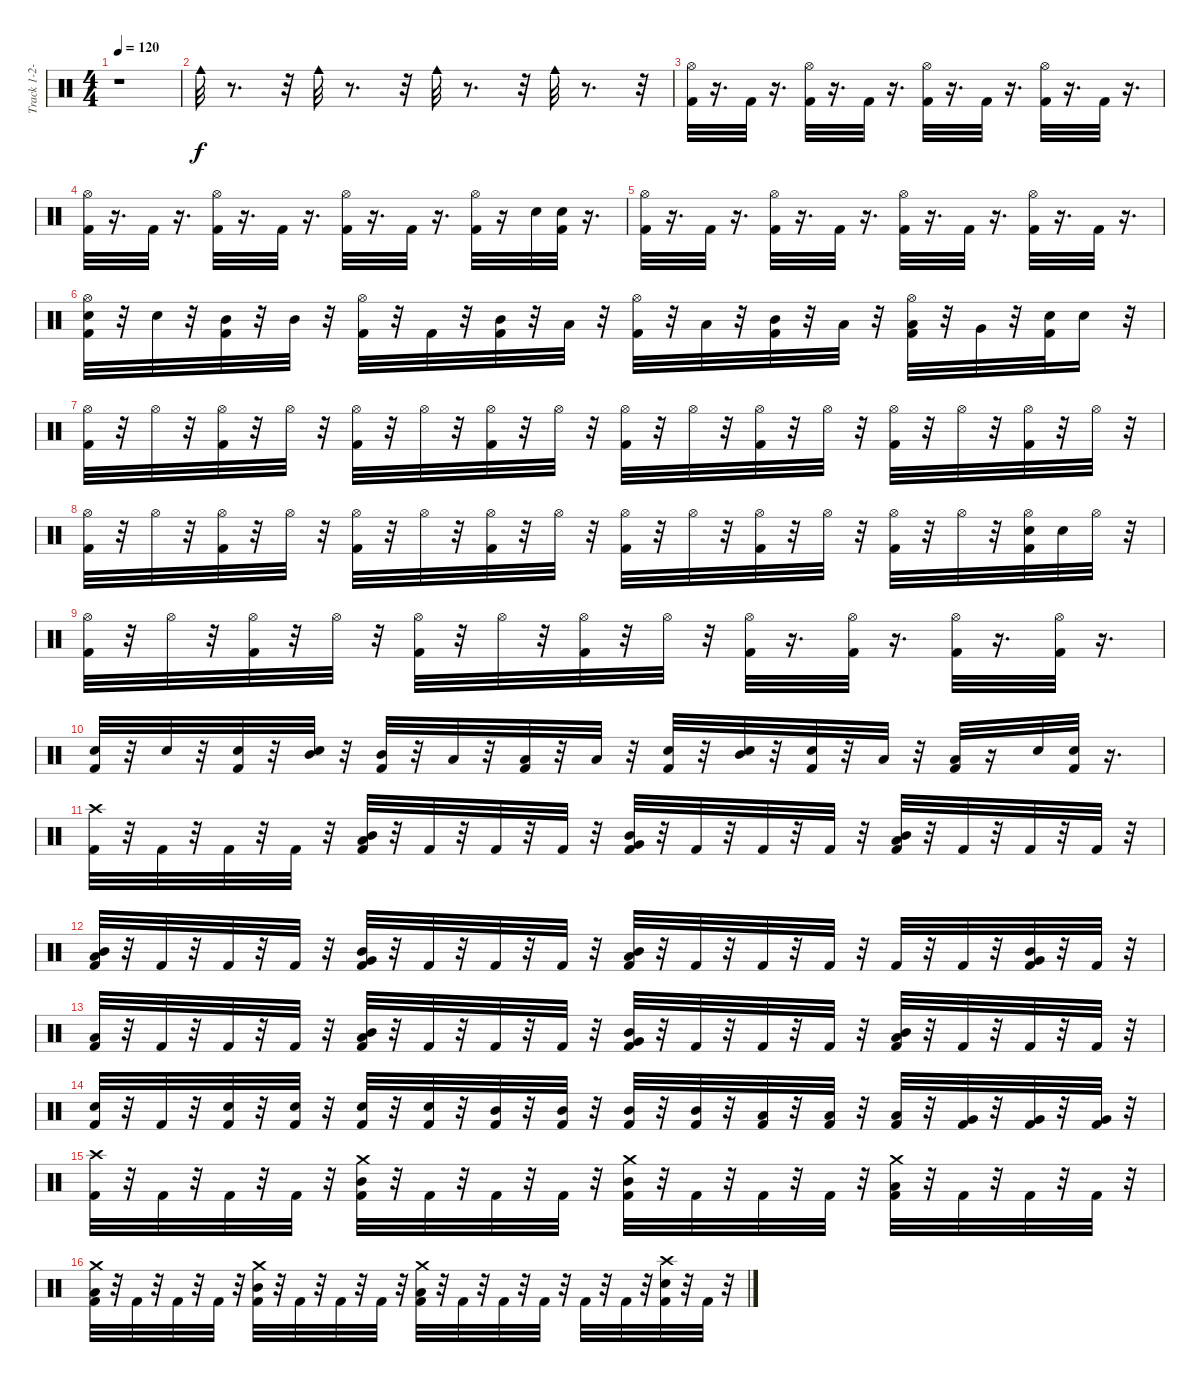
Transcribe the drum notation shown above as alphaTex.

\track ("Track 1-2-3-4" "Track 1-2-") {instrument percussion}
\staff {score}
\articulation defaults
\ts (4 4)
\tempo 120
\clef neutral
\ks c
r.1{dy f} |
"Cowbell medium (hit)".32 r.8{d} r.32 "Cowbell medium (hit)".32 r.8{d} r.32 "Cowbell medium (hit)".32 r.8{d} r.32 "Cowbell medium (hit)".32 r.8{d} r.32 |
("Hi-Hat (open)" "Kick (hit) 2").32 r.16{d} "Kick (hit) 2".32 r.16{d} ("Hi-Hat (open)" "Kick (hit) 2").32 r.16{d} "Kick (hit) 2".32 r.16{d} ("Hi-Hat (open)" "Kick (hit) 2").32 r.16{d} "Kick (hit) 2".32 r.16{d} ("Hi-Hat (open)" "Kick (hit) 2").32 r.16{d} "Kick (hit) 2".32 r.16{d} |
("Hi-Hat (open)" "Kick (hit) 2").32 r.16{d} "Kick (hit) 2".32 r.16{d} ("Hi-Hat (open)" "Kick (hit) 2").32 r.16{d} "Kick (hit) 2".32 r.16{d} ("Hi-Hat (open)" "Kick (hit) 2").32 r.16{d} "Kick (hit) 2".32 r.16{d} ("Hi-Hat (open)" "Kick (hit) 2").32 r.16 "Electric Snare (hit)".32 ("Kick (hit) 2" "Electric Snare (hit)").32 r.16{d} |
("Hi-Hat (open)" "Kick (hit) 2").32 r.16{d} "Kick (hit) 2".32 r.16{d} ("Hi-Hat (open)" "Kick (hit) 2").32 r.16{d} "Kick (hit) 2".32 r.16{d} ("Hi-Hat (open)" "Kick (hit) 2").32 r.16{d} "Kick (hit) 2".32 r.16{d} ("Hi-Hat (open)" "Kick (hit) 2").32 r.16{d} "Kick (hit) 2".32 r.16{d} |
("Hi-Hat (open)" "Kick (hit) 2" "Electric Snare (hit)").32 r.32 "Electric Snare (hit)".32 r.32 ("Kick (hit) 2" "Mid Tom (hit)").32 r.32 "Mid Tom (hit)".32 r.32 ("Hi-Hat (open)" "Kick (hit) 2").32 r.32 "Kick (hit) 2".32 r.32 ("Kick (hit) 2" "Mid Tom (hit)").32 r.32 "Low Tom (hit)".32 r.32 ("Hi-Hat (open)" "Kick (hit) 2").32 r.32 "Low Tom (hit)".32 r.32 ("Kick (hit) 2" "Mid Tom (hit)").32 r.32 "Low Tom (hit)".32 r.32 ("Hi-Hat (open)" "Kick (hit) 2" "Low Tom (hit)").32 r.32 "Very Low Tom (hit)".32 r.32 ("Kick (hit) 2" "Electric Snare (hit)").32 "Electric Snare (hit)".16 r.32 |
("Hi-Hat (open)" "Kick (hit) 2").32 r.32 "Hi-Hat (open)".32 r.32 ("Hi-Hat (open)" "Kick (hit) 2").32 r.32 "Hi-Hat (open)".32 r.32 ("Hi-Hat (open)" "Kick (hit) 2").32 r.32 "Hi-Hat (open)".32 r.32 ("Hi-Hat (open)" "Kick (hit) 2").32 r.32 "Hi-Hat (open)".32 r.32 ("Hi-Hat (open)" "Kick (hit) 2").32 r.32 "Hi-Hat (open)".32 r.32 ("Hi-Hat (open)" "Kick (hit) 2").32 r.32 "Hi-Hat (open)".32 r.32 ("Hi-Hat (open)" "Kick (hit) 2").32 r.32 "Hi-Hat (open)".32 r.32 ("Hi-Hat (open)" "Kick (hit) 2").32 r.32 "Hi-Hat (open)".32 r.32 |
("Hi-Hat (open)" "Kick (hit) 2").32 r.32 "Hi-Hat (open)".32 r.32 ("Hi-Hat (open)" "Kick (hit) 2").32 r.32 "Hi-Hat (open)".32 r.32 ("Hi-Hat (open)" "Kick (hit) 2").32 r.32 "Hi-Hat (open)".32 r.32 ("Hi-Hat (open)" "Kick (hit) 2").32 r.32 "Hi-Hat (open)".32 r.32 ("Hi-Hat (open)" "Kick (hit) 2").32 r.32 "Hi-Hat (open)".32 r.32 ("Hi-Hat (open)" "Kick (hit) 2").32 r.32 "Hi-Hat (open)".32 r.32 ("Hi-Hat (open)" "Kick (hit) 2").32 r.32 "Hi-Hat (open)".32 r.32 ("Hi-Hat (open)" "Kick (hit) 2" "Electric Snare (hit)").32 "Electric Snare (hit)".32 "Hi-Hat (open)".32 r.32 |
("Hi-Hat (open)" "Kick (hit) 2").32 r.32 "Hi-Hat (open)".32 r.32 ("Hi-Hat (open)" "Kick (hit) 2").32 r.32 "Hi-Hat (open)".32 r.32 ("Hi-Hat (open)" "Kick (hit) 2").32 r.32 "Hi-Hat (open)".32 r.32 ("Hi-Hat (open)" "Kick (hit) 2").32 r.32 "Hi-Hat (open)".32 r.32 ("Hi-Hat (open)" "Kick (hit) 2").32 r.16{d} ("Hi-Hat (open)" "Kick (hit) 2").32 r.16{d} ("Hi-Hat (open)" "Kick (hit) 2").32 r.16{d} ("Hi-Hat (open)" "Kick (hit) 2").32 r.16{d} |
("Kick (hit) 2" "Electric Snare (hit)").32 r.32 "Electric Snare (hit)".32 r.32 ("Kick (hit) 2" "Electric Snare (hit)").32 r.32 ("Electric Snare (hit)" "Mid Tom (hit)").32 r.32 ("Kick (hit) 2" "Mid Tom (hit)").32 r.32 "Low Tom (hit)".32 r.32 ("Kick (hit) 2" "Low Tom (hit)").32 r.32 "Low Tom (hit)".32 r.32 ("Kick (hit) 2" "Electric Snare (hit)").32 r.32 ("Electric Snare (hit)" "Mid Tom (hit)").32 r.32 ("Kick (hit) 2" "Electric Snare (hit)").32 r.32 "Low Tom (hit)".32 r.32 ("Kick (hit) 2" "Low Tom (hit)").32 r.16 "Electric Snare (hit)".32 ("Kick (hit) 2" "Electric Snare (hit)").32 r.16{d} |
("Crash high (hit)" "Kick (hit) 2").32 r.32 "Kick (hit) 2".32 r.32 "Kick (hit) 2".32 r.32 "Kick (hit) 2".32 r.32 ("Kick (hit) 2" "Low Tom (hit)" "Mid Tom (hit)").32 r.32 "Kick (hit) 2".32 r.32 "Kick (hit) 2".32 r.32 "Kick (hit) 2".32 r.32 ("Kick (hit) 2" "Very Low Tom (hit)" "Mid Tom (hit)").32 r.32 "Kick (hit) 2".32 r.32 "Kick (hit) 2".32 r.32 "Kick (hit) 2".32 r.32 ("Kick (hit) 2" "Low Tom (hit)" "Mid Tom (hit)").32 r.32 "Kick (hit) 2".32 r.32 "Kick (hit) 2".32 r.32 "Kick (hit) 2".32 r.32 |
("Kick (hit) 2" "Low Tom (hit)" "Mid Tom (hit)").32 r.32 "Kick (hit) 2".32 r.32 "Kick (hit) 2".32 r.32 "Kick (hit) 2".32 r.32 ("Kick (hit) 2" "Very Low Tom (hit)" "Mid Tom (hit)").32 r.32 "Kick (hit) 2".32 r.32 "Kick (hit) 2".32 r.32 "Kick (hit) 2".32 r.32 ("Kick (hit) 2" "Low Tom (hit)" "Mid Tom (hit)").32 r.32 "Kick (hit) 2".32 r.32 "Kick (hit) 2".32 r.32 "Kick (hit) 2".32 r.32 "Kick (hit) 2".32 r.32 "Kick (hit) 2".32 r.32 ("Kick (hit) 2" "Very Low Tom (hit)" "Mid Tom (hit)").32 r.32 "Kick (hit) 2".32 r.32 |
("Kick (hit) 2" "Low Tom (hit)").32 r.32 "Kick (hit) 2".32 r.32 "Kick (hit) 2".32 r.32 "Kick (hit) 2".32 r.32 ("Kick (hit) 2" "Low Tom (hit)" "Mid Tom (hit)").32 r.32 "Kick (hit) 2".32 r.32 "Kick (hit) 2".32 r.32 "Kick (hit) 2".32 r.32 ("Kick (hit) 2" "Very Low Tom (hit)" "Mid Tom (hit)").32 r.32 "Kick (hit) 2".32 r.32 "Kick (hit) 2".32 r.32 "Kick (hit) 2".32 r.32 ("Kick (hit) 2" "Low Tom (hit)" "Mid Tom (hit)").32 r.32 "Kick (hit) 2".32 r.32 "Kick (hit) 2".32 r.32 "Kick (hit) 2".32 r.32 |
("Kick (hit) 2" "Electric Snare (hit)").32 r.32 "Kick (hit) 2".32 r.32 ("Kick (hit) 2" "Electric Snare (hit)").32 r.32 ("Kick (hit) 2" "Electric Snare (hit)").32 r.32 ("Kick (hit) 2" "Electric Snare (hit)").32 r.32 ("Kick (hit) 2" "Electric Snare (hit)").32 r.32 ("Kick (hit) 2" "Mid Tom (hit)").32 r.32 ("Kick (hit) 2" "Mid Tom (hit)").32 r.32 ("Kick (hit) 2" "Mid Tom (hit)").32 r.32 ("Kick (hit) 2" "Mid Tom (hit)").32 r.32 ("Kick (hit) 2" "Low Tom (hit)").32 r.32 ("Kick (hit) 2" "Low Tom (hit)").32 r.32 ("Kick (hit) 2" "Low Tom (hit)").32 r.32 ("Kick (hit) 2" "Very Low Tom (hit)").32 r.32 ("Kick (hit) 2" "Very Low Tom (hit)").32 r.32 ("Kick (hit) 2" "Very Low Tom (hit)").32 r.32 |
("Crash high (hit)" "Kick (hit) 2").32 r.32 "Kick (hit) 2".32 r.32 "Kick (hit) 2".32 r.32 "Kick (hit) 2".32 r.32 ("Crash medium (hit)" "Kick (hit) 2" "Mid Tom (hit)").32 r.32 "Kick (hit) 2".32 r.32 "Kick (hit) 2".32 r.32 "Kick (hit) 2".32 r.32 ("Crash medium (hit)" "Kick (hit) 2" "Mid Tom (hit)").32 r.32 "Kick (hit) 2".32 r.32 "Kick (hit) 2".32 r.32 "Kick (hit) 2".32 r.32 ("Crash medium (hit)" "Kick (hit) 2" "Low Tom (hit)").32 r.32 "Kick (hit) 2".32 r.32 "Kick (hit) 2".32 r.32 "Kick (hit) 2".32 r.32 |
("Crash medium (hit)" "Kick (hit) 2" "Low Tom (hit)").32 r.32 "Kick (hit) 2".32 r.32 "Kick (hit) 2".32 r.32 "Kick (hit) 2".32 r.32 ("Crash medium (hit)" "Kick (hit) 2" "Mid Tom (hit)").32 r.32 "Kick (hit) 2".32 r.32 "Kick (hit) 2".32 r.32 "Kick (hit) 2".32 r.32 ("Crash medium (hit)" "Kick (hit) 2" "Low Tom (hit)").32 r.32 "Kick (hit) 2".32 r.32 "Kick (hit) 2".32 r.32 "Kick (hit) 2".32 r.32 "Kick (hit) 2".32 r.32 "Kick (hit) 2".32 r.32 ("Crash high (hit)" "Kick (hit) 2" "Electric Snare (hit)").32 r.32 "Kick (hit) 2".32 r.32
